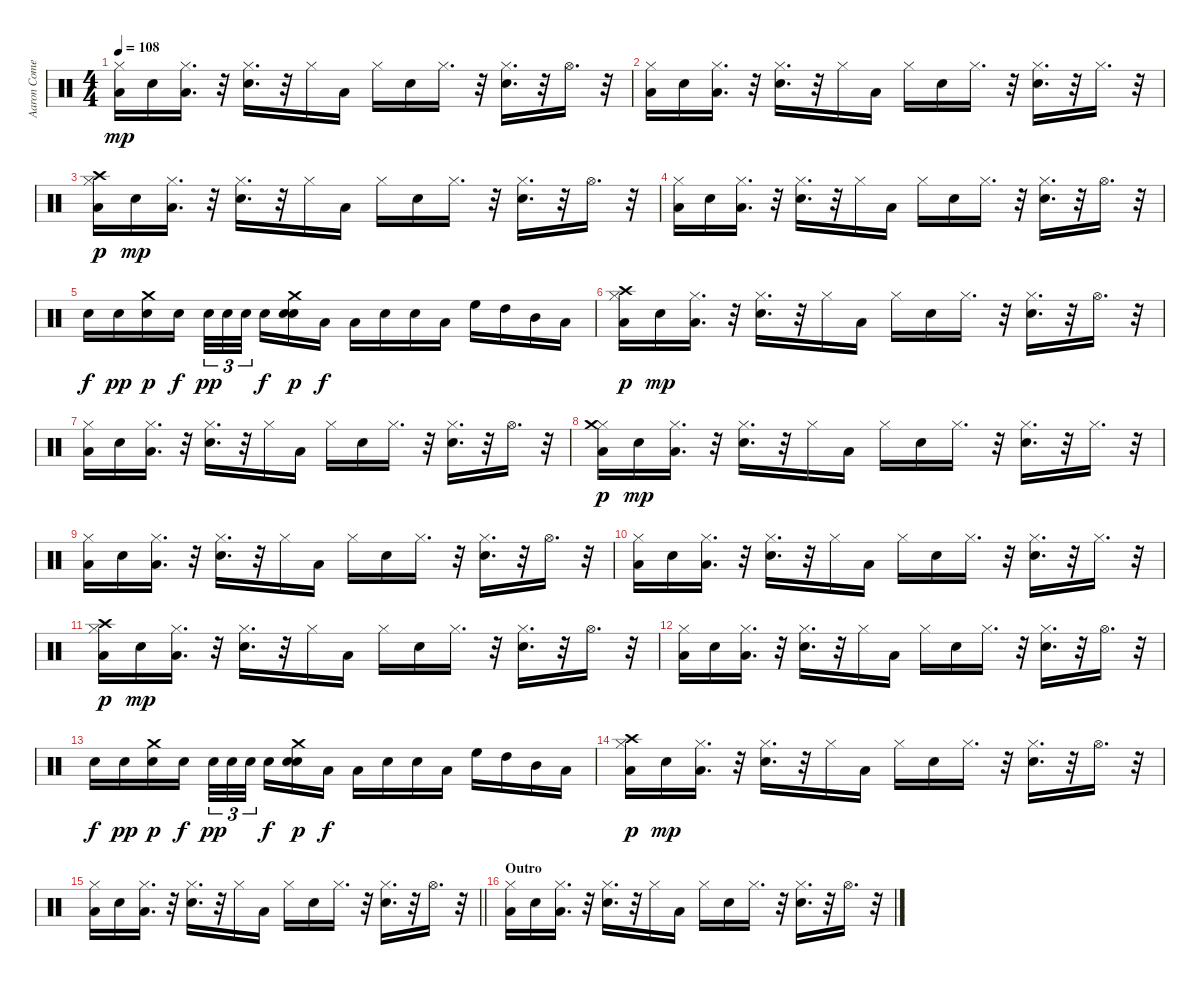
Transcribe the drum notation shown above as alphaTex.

\track ("Aaron Comess" "Aaron Come") {instrument percussion}
\staff {score}
\articulation defaults
\ts (4 4)
\tempo 108
\clef neutral
\ks c
("Low Tom (hit)" "Hi-Hat (closed)").16{dy mp} "Electric Snare (hit)".16 ("Low Tom (hit)" "Hi-Hat (closed)").16{d} r.32 ("Snare (hit) 2" "Hi-Hat (closed)").16{d} r.32 "Hi-Hat (closed)".16 "Low Tom (hit)".16 "Hi-Hat (closed)".16 "Snare (hit) 2".16 "Hi-Hat (closed)".16{d} r.32 ("Snare (hit) 2" "Hi-Hat (closed)").16{d} r.32 "Hi-Hat (open)".16{d} r.32 |
("Low Tom (hit)" "Hi-Hat (closed)").16 "Electric Snare (hit)".16 ("Low Tom (hit)" "Hi-Hat (closed)").16{d} r.32 ("Snare (hit) 2" "Hi-Hat (closed)").16{d} r.32 "Hi-Hat (closed)".16 "Low Tom (hit)".16 "Hi-Hat (closed)".16 "Snare (hit) 2".16 "Hi-Hat (closed)".16{d} r.32 ("Snare (hit) 2" "Hi-Hat (closed)").16{d} r.32 "Hi-Hat (closed)".16{d} r.32 |
("Low Tom (hit)" "Hi-Hat (closed)" "Crash high (hit)").16{dy p} "Electric Snare (hit)".16{dy mp} ("Low Tom (hit)" "Hi-Hat (closed)").16{d} r.32 ("Snare (hit) 2" "Hi-Hat (closed)").16{d} r.32 "Hi-Hat (closed)".16 "Low Tom (hit)".16 "Hi-Hat (closed)".16 "Snare (hit) 2".16 "Hi-Hat (closed)".16{d} r.32 ("Snare (hit) 2" "Hi-Hat (closed)").16{d} r.32 "Hi-Hat (open)".16{d} r.32 |
("Low Tom (hit)" "Hi-Hat (closed)").16 "Electric Snare (hit)".16 ("Low Tom (hit)" "Hi-Hat (closed)").16{d} r.32 ("Snare (hit) 2" "Hi-Hat (closed)").16{d} r.32 "Hi-Hat (closed)".16 "Low Tom (hit)".16 "Hi-Hat (closed)".16 "Snare (hit) 2".16 "Hi-Hat (closed)".16{d} r.32 ("Snare (hit) 2" "Hi-Hat (closed)").16{d} r.32 "Hi-Hat (open)".16{d} r.32 |
"Snare (hit) 2".16{dy f} "Snare (hit) 2".16{dy pp} ("Snare (hit) 2" "Crash medium (hit)").16{dy p} "Snare (hit) 2".16{dy f} "Snare (hit) 2".32{tu (3 2) dy pp} "Snare (hit) 2".32{tu (3 2)} "Snare (hit) 2".32{tu (3 2) beam splitsecondary} "Snare (hit) 2".16{dy f} ("Snare (hit) 2" "Electric Snare (hit)" "Crash medium (hit)").16{dy p} "Low Tom (hit)".16{dy f} "Low Tom (hit)".16 "Snare (hit) 2".16 "Snare (hit) 2".16 "Low Tom (hit)".16 "High Floor Tom (hit)".16 "High Tom (hit)".16 "Mid Tom (hit)".16 "Low Tom (hit)".16 |
("Low Tom (hit)" "Hi-Hat (closed)" "Crash high (hit)").16{dy p} "Electric Snare (hit)".16{dy mp} ("Low Tom (hit)" "Hi-Hat (closed)").16{d} r.32 ("Snare (hit) 2" "Hi-Hat (closed)").16{d} r.32 "Hi-Hat (closed)".16 "Low Tom (hit)".16 "Hi-Hat (closed)".16 "Snare (hit) 2".16 "Hi-Hat (closed)".16{d} r.32 ("Snare (hit) 2" "Hi-Hat (closed)").16{d} r.32 "Hi-Hat (open)".16{d} r.32 |
("Low Tom (hit)" "Hi-Hat (closed)").16 "Electric Snare (hit)".16 ("Low Tom (hit)" "Hi-Hat (closed)").16{d} r.32 ("Snare (hit) 2" "Hi-Hat (closed)").16{d} r.32 "Hi-Hat (closed)".16 "Low Tom (hit)".16 "Hi-Hat (closed)".16 "Snare (hit) 2".16 "Hi-Hat (closed)".16{d} r.32 ("Snare (hit) 2" "Hi-Hat (closed)").16{d} r.32 "Hi-Hat (open)".16{d} r.32 |
("Low Tom (hit)" "Hi-Hat (closed)" "Crash medium (hit)").16{dy p} "Electric Snare (hit)".16{dy mp} ("Low Tom (hit)" "Hi-Hat (closed)").16{d} r.32 ("Snare (hit) 2" "Hi-Hat (closed)").16{d} r.32 "Hi-Hat (closed)".16 "Low Tom (hit)".16 "Hi-Hat (closed)".16 "Snare (hit) 2".16 "Hi-Hat (closed)".16{d} r.32 ("Snare (hit) 2" "Hi-Hat (closed)").16{d} r.32 "Hi-Hat (closed)".16{d} r.32 |
("Low Tom (hit)" "Hi-Hat (closed)").16 "Electric Snare (hit)".16 ("Low Tom (hit)" "Hi-Hat (closed)").16{d} r.32 ("Snare (hit) 2" "Hi-Hat (closed)").16{d} r.32 "Hi-Hat (closed)".16 "Low Tom (hit)".16 "Hi-Hat (closed)".16 "Snare (hit) 2".16 "Hi-Hat (closed)".16{d} r.32 ("Snare (hit) 2" "Hi-Hat (closed)").16{d} r.32 "Hi-Hat (open)".16{d} r.32 |
("Low Tom (hit)" "Hi-Hat (closed)").16 "Electric Snare (hit)".16 ("Low Tom (hit)" "Hi-Hat (closed)").16{d} r.32 ("Snare (hit) 2" "Hi-Hat (closed)").16{d} r.32 "Hi-Hat (closed)".16 "Low Tom (hit)".16 "Hi-Hat (closed)".16 "Snare (hit) 2".16 "Hi-Hat (closed)".16{d} r.32 ("Snare (hit) 2" "Hi-Hat (closed)").16{d} r.32 "Hi-Hat (closed)".16{d} r.32 |
("Low Tom (hit)" "Hi-Hat (closed)" "Crash high (hit)").16{dy p} "Electric Snare (hit)".16{dy mp} ("Low Tom (hit)" "Hi-Hat (closed)").16{d} r.32 ("Snare (hit) 2" "Hi-Hat (closed)").16{d} r.32 "Hi-Hat (closed)".16 "Low Tom (hit)".16 "Hi-Hat (closed)".16 "Snare (hit) 2".16 "Hi-Hat (closed)".16{d} r.32 ("Snare (hit) 2" "Hi-Hat (closed)").16{d} r.32 "Hi-Hat (open)".16{d} r.32 |
("Low Tom (hit)" "Hi-Hat (closed)").16 "Electric Snare (hit)".16 ("Low Tom (hit)" "Hi-Hat (closed)").16{d} r.32 ("Snare (hit) 2" "Hi-Hat (closed)").16{d} r.32 "Hi-Hat (closed)".16 "Low Tom (hit)".16 "Hi-Hat (closed)".16 "Snare (hit) 2".16 "Hi-Hat (closed)".16{d} r.32 ("Snare (hit) 2" "Hi-Hat (closed)").16{d} r.32 "Hi-Hat (open)".16{d} r.32 |
"Snare (hit) 2".16{dy f} "Snare (hit) 2".16{dy pp} ("Snare (hit) 2" "Crash medium (hit)").16{dy p} "Snare (hit) 2".16{dy f} "Snare (hit) 2".32{tu (3 2) dy pp} "Snare (hit) 2".32{tu (3 2)} "Snare (hit) 2".32{tu (3 2) beam splitsecondary} "Snare (hit) 2".16{dy f} ("Snare (hit) 2" "Electric Snare (hit)" "Crash medium (hit)").16{dy p} "Low Tom (hit)".16{dy f} "Low Tom (hit)".16 "Snare (hit) 2".16 "Snare (hit) 2".16 "Low Tom (hit)".16 "High Floor Tom (hit)".16 "High Tom (hit)".16 "Mid Tom (hit)".16 "Low Tom (hit)".16 |
("Low Tom (hit)" "Hi-Hat (closed)" "Crash high (hit)").16{dy p} "Electric Snare (hit)".16{dy mp} ("Low Tom (hit)" "Hi-Hat (closed)").16{d} r.32 ("Snare (hit) 2" "Hi-Hat (closed)").16{d} r.32 "Hi-Hat (closed)".16 "Low Tom (hit)".16 "Hi-Hat (closed)".16 "Snare (hit) 2".16 "Hi-Hat (closed)".16{d} r.32 ("Snare (hit) 2" "Hi-Hat (closed)").16{d} r.32 "Hi-Hat (open)".16{d} r.32 |
\barLineRight lightlight
("Low Tom (hit)" "Hi-Hat (closed)").16 "Electric Snare (hit)".16 ("Low Tom (hit)" "Hi-Hat (closed)").16{d} r.32 ("Snare (hit) 2" "Hi-Hat (closed)").16{d} r.32 "Hi-Hat (closed)".16 "Low Tom (hit)".16 "Hi-Hat (closed)".16 "Snare (hit) 2".16 "Hi-Hat (closed)".16{d} r.32 ("Snare (hit) 2" "Hi-Hat (closed)").16{d} r.32 "Hi-Hat (open)".16{d} r.32 |
\section ("" "Outro")
("Low Tom (hit)" "Hi-Hat (closed)").16 "Electric Snare (hit)".16 ("Low Tom (hit)" "Hi-Hat (closed)").16{d} r.32 ("Snare (hit) 2" "Hi-Hat (closed)").16{d} r.32 "Hi-Hat (closed)".16 "Low Tom (hit)".16 "Hi-Hat (closed)".16 "Snare (hit) 2".16 "Hi-Hat (closed)".16{d} r.32 ("Snare (hit) 2" "Hi-Hat (closed)").16{d} r.32 "Hi-Hat (open)".16{d} r.32
